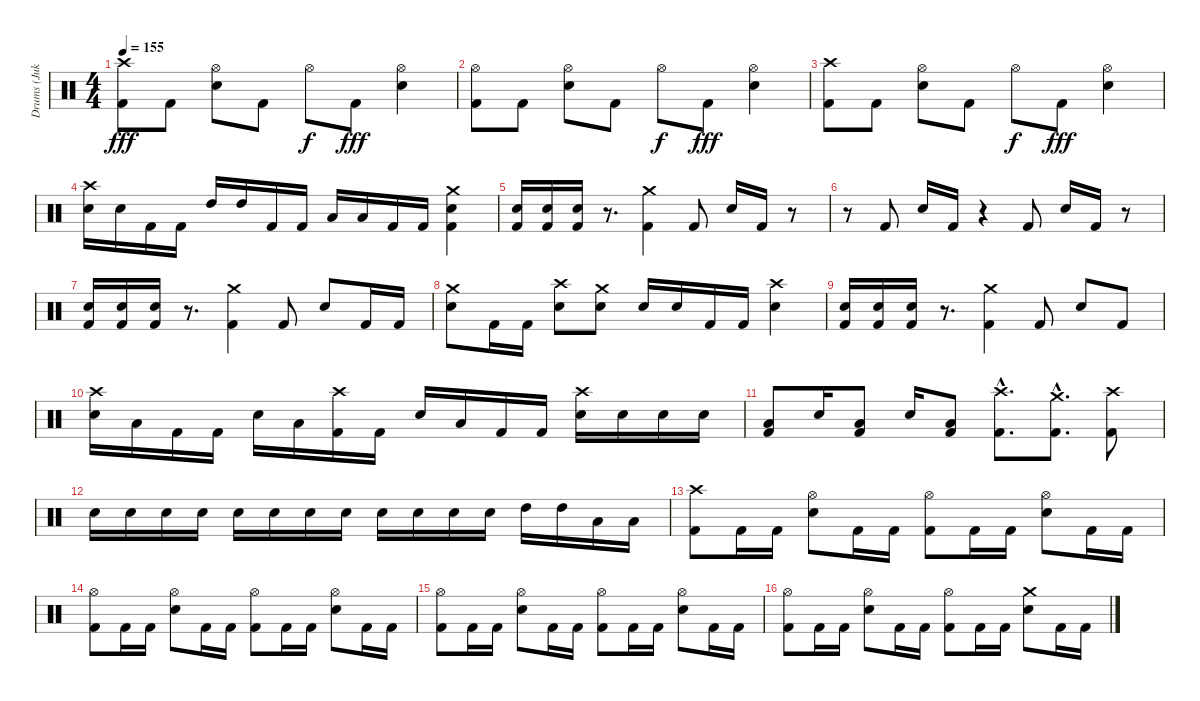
\track ("Drums (Jukka)" "Drums (Juk") {instrument percussion}
\staff {score}
\articulation defaults
\ts (4 4)
\tempo 155
\clef neutral
\ks c
("Kick (hit) 2" "Crash high (hit)").8{dy fff} "Kick (hit) 2".8 ("Snare (hit) 2" "Hi-Hat (open)").8 "Kick (hit) 2".8 "Hi-Hat (open)".8{dy f} "Kick (hit) 2".8{dy fff} ("Snare (hit) 2" "Hi-Hat (open)").4 |
("Kick (hit) 2" "Hi-Hat (open)").8 "Kick (hit) 2".8 ("Snare (hit) 2" "Hi-Hat (open)").8 "Kick (hit) 2".8 "Hi-Hat (open)".8{dy f} "Kick (hit) 2".8{dy fff} ("Snare (hit) 2" "Hi-Hat (open)").4 |
("Kick (hit) 2" "Crash high (hit)").8 "Kick (hit) 2".8 ("Snare (hit) 2" "Hi-Hat (open)").8 "Kick (hit) 2".8 "Hi-Hat (open)".8{dy f} "Kick (hit) 2".8{dy fff} ("Snare (hit) 2" "Hi-Hat (open)").4 |
("Snare (hit) 2" "Crash high (hit)").16 "Snare (hit) 2".16 "Kick (hit) 2".16 "Kick (hit) 2".16 "High Tom (hit)".16 "High Tom (hit)".16 "Kick (hit) 2".16 "Kick (hit) 2".16 "Low Tom (hit)".16 "Low Tom (hit)".16 "Kick (hit) 2".16 "Kick (hit) 2".16 ("Kick (hit) 2" "Snare (hit) 2" "Crash medium (hit)").4 |
("Snare (hit) 2" "Kick (hit) 2").16 ("Snare (hit) 2" "Kick (hit) 2").16 ("Snare (hit) 2" "Kick (hit) 2").16 r.8{d} ("Kick (hit) 2" "Crash medium (hit)").4 "Kick (hit) 2".8 "Snare (hit) 2".16 "Kick (hit) 2".16 r.8 |
r.8 "Kick (hit) 2".8 "Snare (hit) 2".16 "Kick (hit) 2".16 r.4 "Kick (hit) 2".8 "Snare (hit) 2".16 "Kick (hit) 2".16 r.8 |
("Snare (hit) 2" "Kick (hit) 2").16 ("Snare (hit) 2" "Kick (hit) 2").16 ("Snare (hit) 2" "Kick (hit) 2").16 r.8{d} ("Kick (hit) 2" "Crash medium (hit)").4 "Kick (hit) 2".8 "Snare (hit) 2".8 "Kick (hit) 2".16 "Kick (hit) 2".16 |
("Snare (hit) 2" "Crash medium (hit)").8 "Kick (hit) 2".16 "Kick (hit) 2".16 ("Snare (hit) 2" "Crash high (hit)").8 ("Snare (hit) 2" "Crash medium (hit)").8 "Snare (hit) 2".16 "Snare (hit) 2".16 "Kick (hit) 2".16 "Kick (hit) 2".16 ("Snare (hit) 2" "Crash high (hit)").4 |
("Snare (hit) 2" "Kick (hit) 2").16 ("Snare (hit) 2" "Kick (hit) 2").16 ("Snare (hit) 2" "Kick (hit) 2").16 r.8{d} ("Kick (hit) 2" "Crash medium (hit)").4 "Kick (hit) 2".8 "Snare (hit) 2".8 "Kick (hit) 2".8 |
("Snare (hit) 2" "Crash high (hit)").16 "Low Tom (hit)".16 "Kick (hit) 2".16 "Kick (hit) 2".16 "Snare (hit) 2".16 "Low Tom (hit)".16 ("Kick (hit) 2" "Crash high (hit)").16 "Kick (hit) 2".16 "Snare (hit) 2".16 "Low Tom (hit)".16 "Kick (hit) 2".16 "Kick (hit) 2".16 ("Snare (hit) 2" "Crash high (hit)").16 "Snare (hit) 2".16 "Snare (hit) 2".16 "Snare (hit) 2".16 |
("Kick (hit) 2" "Low Tom (hit)").8 "Snare (hit) 2".16 ("Kick (hit) 2" "Low Tom (hit)").8 "Snare (hit) 2".16 ("Kick (hit) 2" "Low Tom (hit)").8 ("Kick (hit) 2"{hac} "Crash high (hit)"{hac}).8{d} ("Kick (hit) 2"{hac} "Crash medium (hit)"{hac}).8{d} ("Kick (hit) 2" "Crash high (hit)").8 |
"Snare (hit) 2".16 "Snare (hit) 2".16 "Snare (hit) 2".16 "Snare (hit) 2".16 "Snare (hit) 2".16 "Snare (hit) 2".16 "Snare (hit) 2".16 "Snare (hit) 2".16 "Snare (hit) 2".16 "Snare (hit) 2".16 "Snare (hit) 2".16 "Snare (hit) 2".16 "High Tom (hit)".16 "High Tom (hit)".16 "Low Tom (hit)".16 "Low Floor Tom (hit)".16 |
("Kick (hit) 2" "Crash high (hit)").8 "Kick (hit) 2".16 "Kick (hit) 2".16 ("Snare (hit) 2" "Hi-Hat (open)").8 "Kick (hit) 2".16 "Kick (hit) 2".16 ("Kick (hit) 2" "Hi-Hat (open)").8 "Kick (hit) 2".16 "Kick (hit) 2".16 ("Snare (hit) 2" "Hi-Hat (open)").8 "Kick (hit) 2".16 "Kick (hit) 2".16 |
("Kick (hit) 2" "Hi-Hat (open)").8 "Kick (hit) 2".16 "Kick (hit) 2".16 ("Snare (hit) 2" "Hi-Hat (open)").8 "Kick (hit) 2".16 "Kick (hit) 2".16 ("Kick (hit) 2" "Hi-Hat (open)").8 "Kick (hit) 2".16 "Kick (hit) 2".16 ("Snare (hit) 2" "Hi-Hat (open)").8 "Kick (hit) 2".16 "Kick (hit) 2".16 |
("Kick (hit) 2" "Hi-Hat (open)").8 "Kick (hit) 2".16 "Kick (hit) 2".16 ("Snare (hit) 2" "Hi-Hat (open)").8 "Kick (hit) 2".16 "Kick (hit) 2".16 ("Kick (hit) 2" "Hi-Hat (open)").8 "Kick (hit) 2".16 "Kick (hit) 2".16 ("Snare (hit) 2" "Hi-Hat (open)").8 "Kick (hit) 2".16 "Kick (hit) 2".16 |
("Kick (hit) 2" "Hi-Hat (open)").8 "Kick (hit) 2".16 "Kick (hit) 2".16 ("Snare (hit) 2" "Hi-Hat (open)").8 "Kick (hit) 2".16 "Kick (hit) 2".16 ("Kick (hit) 2" "Hi-Hat (open)").8 "Kick (hit) 2".16 "Kick (hit) 2".16 ("Snare (hit) 2" "Crash medium (hit)").8 "Kick (hit) 2".16 "Kick (hit) 2".16
